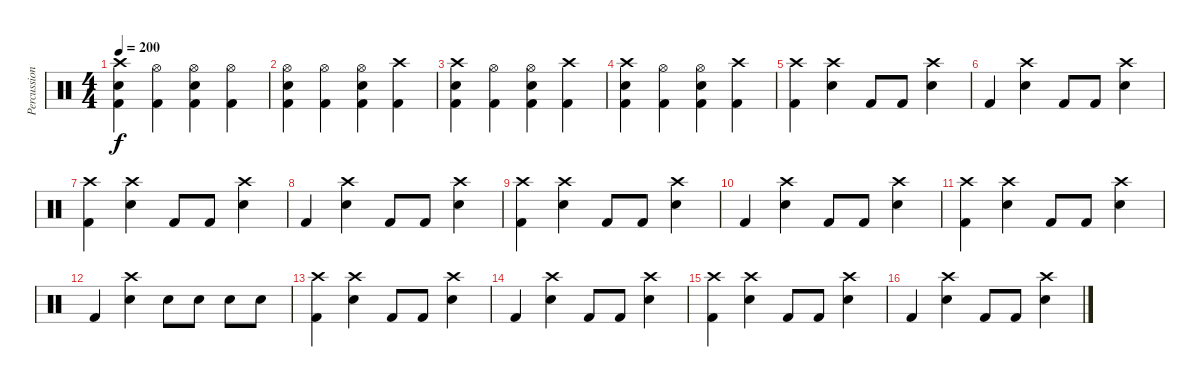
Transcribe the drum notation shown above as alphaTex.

\track ("Percussion" "Percussion") {instrument percussion}
\staff {score}
\articulation defaults
\ts (4 4)
\tempo 200
\clef neutral
\ks c
("Crash high (hit)" "Snare (hit) 2" "Kick (hit) 2").4{dy f} ("Hi-Hat (open)" "Kick (hit) 2").4 ("Hi-Hat (open)" "Snare (hit) 2" "Kick (hit) 2").4 ("Hi-Hat (open)" "Kick (hit) 2").4 |
("Hi-Hat (open)" "Snare (hit) 2" "Kick (hit) 2").4 ("Hi-Hat (open)" "Kick (hit) 2").4 ("Hi-Hat (open)" "Snare (hit) 2" "Kick (hit) 2").4 ("Crash high (hit)" "Kick (hit) 2").4 |
("Crash high (hit)" "Snare (hit) 2" "Kick (hit) 2").4 ("Hi-Hat (open)" "Kick (hit) 2").4 ("Hi-Hat (open)" "Snare (hit) 2" "Kick (hit) 2").4 ("Crash high (hit)" "Kick (hit) 2").4 |
("Crash high (hit)" "Snare (hit) 2" "Kick (hit) 2").4 ("Hi-Hat (open)" "Kick (hit) 2").4 ("Hi-Hat (open)" "Snare (hit) 2" "Kick (hit) 2").4 ("Crash high (hit)" "Kick (hit) 2").4 |
("Crash high (hit)" "Kick (hit) 2").4 ("Crash high (hit)" "Snare (hit) 2").4 "Kick (hit) 2".8 "Kick (hit) 2".8 ("Crash high (hit)" "Snare (hit) 2").4 |
"Kick (hit) 2".4 ("Crash high (hit)" "Snare (hit) 2").4 "Kick (hit) 2".8 "Kick (hit) 2".8 ("Crash high (hit)" "Snare (hit) 2").4 |
("Crash high (hit)" "Kick (hit) 2").4 ("Crash high (hit)" "Snare (hit) 2").4 "Kick (hit) 2".8 "Kick (hit) 2".8 ("Crash high (hit)" "Snare (hit) 2").4 |
"Kick (hit) 2".4 ("Crash high (hit)" "Snare (hit) 2").4 "Kick (hit) 2".8 "Kick (hit) 2".8 ("Crash high (hit)" "Snare (hit) 2").4 |
("Crash high (hit)" "Kick (hit) 2").4 ("Crash high (hit)" "Snare (hit) 2").4 "Kick (hit) 2".8 "Kick (hit) 2".8 ("Crash high (hit)" "Snare (hit) 2").4 |
"Kick (hit) 2".4 ("Crash high (hit)" "Snare (hit) 2").4 "Kick (hit) 2".8 "Kick (hit) 2".8 ("Crash high (hit)" "Snare (hit) 2").4 |
("Crash high (hit)" "Kick (hit) 2").4 ("Crash high (hit)" "Snare (hit) 2").4 "Kick (hit) 2".8 "Kick (hit) 2".8 ("Crash high (hit)" "Snare (hit) 2").4 |
"Kick (hit) 2".4 ("Crash high (hit)" "Snare (hit) 2").4 "Snare (hit) 2".8 "Snare (hit) 2".8 "Snare (hit) 2".8 "Snare (hit) 2".8 |
("Crash high (hit)" "Kick (hit) 2").4 ("Crash high (hit)" "Snare (hit) 2").4 "Kick (hit) 2".8 "Kick (hit) 2".8 ("Crash high (hit)" "Snare (hit) 2").4 |
"Kick (hit) 2".4 ("Crash high (hit)" "Snare (hit) 2").4 "Kick (hit) 2".8 "Kick (hit) 2".8 ("Crash high (hit)" "Snare (hit) 2").4 |
("Crash high (hit)" "Kick (hit) 2").4 ("Crash high (hit)" "Snare (hit) 2").4 "Kick (hit) 2".8 "Kick (hit) 2".8 ("Crash high (hit)" "Snare (hit) 2").4 |
"Kick (hit) 2".4 ("Crash high (hit)" "Snare (hit) 2").4 "Kick (hit) 2".8 "Kick (hit) 2".8 ("Crash high (hit)" "Snare (hit) 2").4
